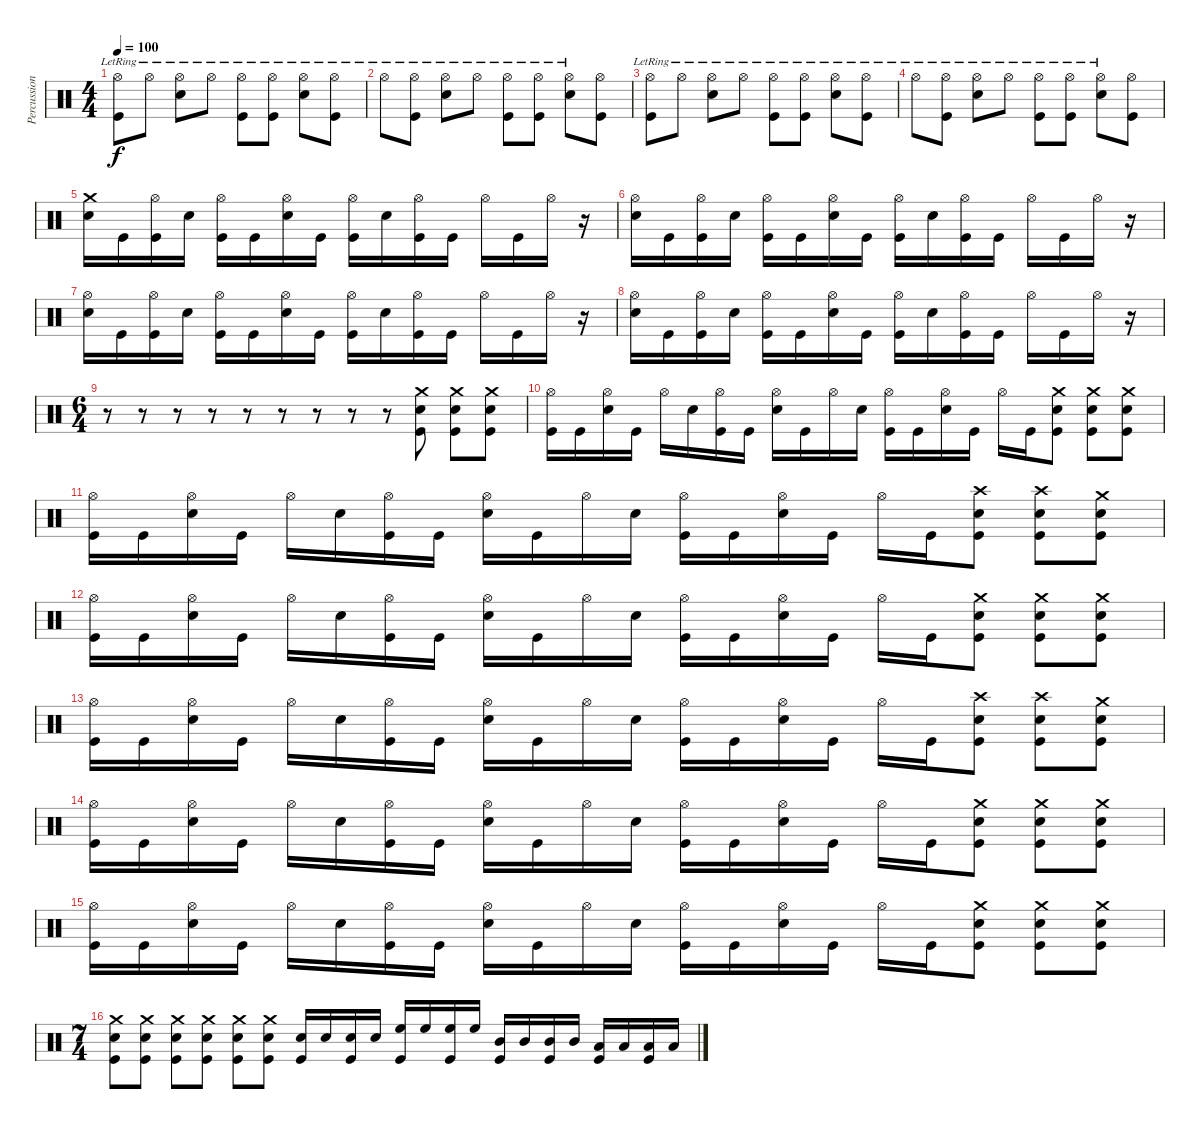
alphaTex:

\track ("Percussion" "Percussion") {instrument percussion}
\staff {score}
\articulation defaults
\ts (4 4)
\tempo 100
\clef neutral
\ks c
("Hi-Hat (open)"{lr} "Kick (hit)").8{dy f} "Hi-Hat (open)"{lr}.8 ("Hi-Hat (open)"{lr} "Electric Snare (hit)").8 "Hi-Hat (open)"{lr}.8 ("Hi-Hat (open)"{lr} "Kick (hit)").8 ("Hi-Hat (open)"{lr} "Kick (hit)").8 ("Hi-Hat (open)"{lr} "Electric Snare (hit)").8 ("Hi-Hat (open)"{lr} "Kick (hit)").8 |
"Hi-Hat (open)"{lr}.8 ("Hi-Hat (open)"{lr} "Kick (hit)").8 ("Hi-Hat (open)"{lr} "Electric Snare (hit)").8 "Hi-Hat (open)"{lr}.8 ("Hi-Hat (open)"{lr} "Kick (hit)").8 ("Hi-Hat (open)"{lr} "Kick (hit)").8 ("Hi-Hat (open)"{lr} "Electric Snare (hit)").8 ("Hi-Hat (open)" "Kick (hit)").8 |
("Hi-Hat (open)"{lr} "Kick (hit)").8 "Hi-Hat (open)"{lr}.8 ("Hi-Hat (open)"{lr} "Electric Snare (hit)").8 "Hi-Hat (open)"{lr}.8 ("Hi-Hat (open)"{lr} "Kick (hit)").8 ("Hi-Hat (open)"{lr} "Kick (hit)").8 ("Hi-Hat (open)"{lr} "Electric Snare (hit)").8 ("Hi-Hat (open)"{lr} "Kick (hit)").8 |
"Hi-Hat (open)"{lr}.8 ("Hi-Hat (open)"{lr} "Kick (hit)").8 ("Hi-Hat (open)"{lr} "Electric Snare (hit)").8 "Hi-Hat (open)"{lr}.8 ("Hi-Hat (open)"{lr} "Kick (hit)").8 ("Hi-Hat (open)"{lr} "Kick (hit)").8 ("Hi-Hat (open)"{lr} "Electric Snare (hit)").8 ("Hi-Hat (open)" "Kick (hit)").8 |
("Crash medium (hit)" "Electric Snare (hit)").16 "Kick (hit)".16 ("Hi-Hat (open)" "Kick (hit)").16 "Electric Snare (hit)".16 ("Hi-Hat (open)" "Kick (hit)").16 "Kick (hit)".16 ("Hi-Hat (open)" "Electric Snare (hit)").16 "Kick (hit)".16 ("Hi-Hat (open)" "Kick (hit)").16 "Electric Snare (hit)".16 ("Hi-Hat (open)" "Kick (hit)").16 "Kick (hit)".16 "Hi-Hat (open)".16 "Kick (hit)".16 "Hi-Hat (open)".16 r.16 |
("Hi-Hat (open)" "Electric Snare (hit)").16 "Kick (hit)".16 ("Hi-Hat (open)" "Kick (hit)").16 "Electric Snare (hit)".16 ("Hi-Hat (open)" "Kick (hit)").16 "Kick (hit)".16 ("Hi-Hat (open)" "Electric Snare (hit)").16 "Kick (hit)".16 ("Hi-Hat (open)" "Kick (hit)").16 "Electric Snare (hit)".16 ("Hi-Hat (open)" "Kick (hit)").16 "Kick (hit)".16 "Hi-Hat (open)".16 "Kick (hit)".16 "Hi-Hat (open)".16 r.16 |
("Hi-Hat (open)" "Electric Snare (hit)").16 "Kick (hit)".16 ("Hi-Hat (open)" "Kick (hit)").16 "Electric Snare (hit)".16 ("Hi-Hat (open)" "Kick (hit)").16 "Kick (hit)".16 ("Hi-Hat (open)" "Electric Snare (hit)").16 "Kick (hit)".16 ("Hi-Hat (open)" "Kick (hit)").16 "Electric Snare (hit)".16 ("Hi-Hat (open)" "Kick (hit)").16 "Kick (hit)".16 "Hi-Hat (open)".16 "Kick (hit)".16 "Hi-Hat (open)".16 r.16 |
("Hi-Hat (open)" "Electric Snare (hit)").16 "Kick (hit)".16 ("Hi-Hat (open)" "Kick (hit)").16 "Electric Snare (hit)".16 ("Hi-Hat (open)" "Kick (hit)").16 "Kick (hit)".16 ("Hi-Hat (open)" "Electric Snare (hit)").16 "Kick (hit)".16 ("Hi-Hat (open)" "Kick (hit)").16 "Electric Snare (hit)".16 ("Hi-Hat (open)" "Kick (hit)").16 "Kick (hit)".16 "Hi-Hat (open)".16 "Kick (hit)".16 "Hi-Hat (open)".16 r.16 |
\ts (6 4)
r.8 r.8 r.8 r.8 r.8 r.8 r.8 r.8 r.8 ("Crash medium (hit)" "Electric Snare (hit)" "Kick (hit)").8 ("Crash medium (hit)" "Electric Snare (hit)" "Kick (hit)").8 ("Crash medium (hit)" "Electric Snare (hit)" "Kick (hit)").8 |
("Hi-Hat (open)" "Kick (hit)").16 "Kick (hit)".16 ("Hi-Hat (open)" "Electric Snare (hit)").16 "Kick (hit)".16 "Hi-Hat (open)".16 "Electric Snare (hit)".16 ("Hi-Hat (open)" "Kick (hit)").16 "Kick (hit)".16 ("Hi-Hat (open)" "Electric Snare (hit)").16 "Kick (hit)".16 "Hi-Hat (open)".16 "Electric Snare (hit)".16 ("Hi-Hat (open)" "Kick (hit)").16 "Kick (hit)".16 ("Hi-Hat (open)" "Electric Snare (hit)").16 "Kick (hit)".16 "Hi-Hat (open)".16 "Kick (hit)".16 ("Crash medium (hit)" "Kick (hit)" "Electric Snare (hit)").8 ("Crash medium (hit)" "Kick (hit)" "Electric Snare (hit)").8 ("Crash medium (hit)" "Kick (hit)" "Electric Snare (hit)").8 |
("Hi-Hat (open)" "Kick (hit)").16 "Kick (hit)".16 ("Hi-Hat (open)" "Electric Snare (hit)").16 "Kick (hit)".16 "Hi-Hat (open)".16 "Electric Snare (hit)".16 ("Hi-Hat (open)" "Kick (hit)").16 "Kick (hit)".16 ("Hi-Hat (open)" "Electric Snare (hit)").16 "Kick (hit)".16 "Hi-Hat (open)".16 "Electric Snare (hit)".16 ("Hi-Hat (open)" "Kick (hit)").16 "Kick (hit)".16 ("Hi-Hat (open)" "Electric Snare (hit)").16 "Kick (hit)".16 "Hi-Hat (open)".16 "Kick (hit)".16 ("Crash high (hit)" "Kick (hit)" "Electric Snare (hit)").8 ("Crash high (hit)" "Kick (hit)" "Electric Snare (hit)").8 ("Crash medium (hit)" "Kick (hit)" "Electric Snare (hit)").8 |
("Hi-Hat (open)" "Kick (hit)").16 "Kick (hit)".16 ("Hi-Hat (open)" "Electric Snare (hit)").16 "Kick (hit)".16 "Hi-Hat (open)".16 "Electric Snare (hit)".16 ("Hi-Hat (open)" "Kick (hit)").16 "Kick (hit)".16 ("Hi-Hat (open)" "Electric Snare (hit)").16 "Kick (hit)".16 "Hi-Hat (open)".16 "Electric Snare (hit)".16 ("Hi-Hat (open)" "Kick (hit)").16 "Kick (hit)".16 ("Hi-Hat (open)" "Electric Snare (hit)").16 "Kick (hit)".16 "Hi-Hat (open)".16 "Kick (hit)".16 ("Crash medium (hit)" "Kick (hit)" "Electric Snare (hit)").8 ("Crash medium (hit)" "Kick (hit)" "Electric Snare (hit)").8 ("Crash medium (hit)" "Kick (hit)" "Electric Snare (hit)").8 |
("Hi-Hat (open)" "Kick (hit)").16 "Kick (hit)".16 ("Hi-Hat (open)" "Electric Snare (hit)").16 "Kick (hit)".16 "Hi-Hat (open)".16 "Electric Snare (hit)".16 ("Hi-Hat (open)" "Kick (hit)").16 "Kick (hit)".16 ("Hi-Hat (open)" "Electric Snare (hit)").16 "Kick (hit)".16 "Hi-Hat (open)".16 "Electric Snare (hit)".16 ("Hi-Hat (open)" "Kick (hit)").16 "Kick (hit)".16 ("Hi-Hat (open)" "Electric Snare (hit)").16 "Kick (hit)".16 "Hi-Hat (open)".16 "Kick (hit)".16 ("Crash high (hit)" "Kick (hit)" "Electric Snare (hit)").8 ("Crash high (hit)" "Kick (hit)" "Electric Snare (hit)").8 ("Crash medium (hit)" "Kick (hit)" "Electric Snare (hit)").8 |
("Hi-Hat (open)" "Kick (hit)").16 "Kick (hit)".16 ("Hi-Hat (open)" "Electric Snare (hit)").16 "Kick (hit)".16 "Hi-Hat (open)".16 "Electric Snare (hit)".16 ("Hi-Hat (open)" "Kick (hit)").16 "Kick (hit)".16 ("Hi-Hat (open)" "Electric Snare (hit)").16 "Kick (hit)".16 "Hi-Hat (open)".16 "Electric Snare (hit)".16 ("Hi-Hat (open)" "Kick (hit)").16 "Kick (hit)".16 ("Hi-Hat (open)" "Electric Snare (hit)").16 "Kick (hit)".16 "Hi-Hat (open)".16 "Kick (hit)".16 ("Crash medium (hit)" "Kick (hit)" "Electric Snare (hit)").8 ("Crash medium (hit)" "Kick (hit)" "Electric Snare (hit)").8 ("Crash medium (hit)" "Kick (hit)" "Electric Snare (hit)").8 |
("Hi-Hat (open)" "Kick (hit)").16 "Kick (hit)".16 ("Hi-Hat (open)" "Electric Snare (hit)").16 "Kick (hit)".16 "Hi-Hat (open)".16 "Electric Snare (hit)".16 ("Hi-Hat (open)" "Kick (hit)").16 "Kick (hit)".16 ("Hi-Hat (open)" "Electric Snare (hit)").16 "Kick (hit)".16 "Hi-Hat (open)".16 "Electric Snare (hit)".16 ("Hi-Hat (open)" "Kick (hit)").16 "Kick (hit)".16 ("Hi-Hat (open)" "Electric Snare (hit)").16 "Kick (hit)".16 "Hi-Hat (open)".16 "Kick (hit)".16 ("Crash medium (hit)" "Kick (hit)" "Electric Snare (hit)").8 ("Crash medium (hit)" "Kick (hit)" "Electric Snare (hit)").8 ("Crash medium (hit)" "Kick (hit)" "Electric Snare (hit)").8 |
\ts (7 4)
("Crash medium (hit)" "Kick (hit)" "Electric Snare (hit)").8 ("Crash medium (hit)" "Kick (hit)" "Electric Snare (hit)").8 ("Crash medium (hit)" "Kick (hit)" "Electric Snare (hit)").8 ("Crash medium (hit)" "Kick (hit)" "Electric Snare (hit)").8 ("Crash medium (hit)" "Kick (hit)" "Electric Snare (hit)").8 ("Crash medium (hit)" "Kick (hit)" "Electric Snare (hit)").8 ("Electric Snare (hit)" "Kick (hit)").16 "Electric Snare (hit)".16 ("Electric Snare (hit)" "Kick (hit)").16 "Electric Snare (hit)".16 ("High Floor Tom (hit)" "Kick (hit)").16 "High Floor Tom (hit)".16 ("High Floor Tom (hit)" "Kick (hit)").16 "High Floor Tom (hit)".16 ("Mid Tom (hit)" "Kick (hit)").16 "Mid Tom (hit)".16 ("Mid Tom (hit)" "Kick (hit)").16 "Mid Tom (hit)".16 ("Low Floor Tom (hit)" "Kick (hit)").16 "Low Floor Tom (hit)".16 ("Low Floor Tom (hit)" "Kick (hit)").16 "Low Floor Tom (hit)".16
